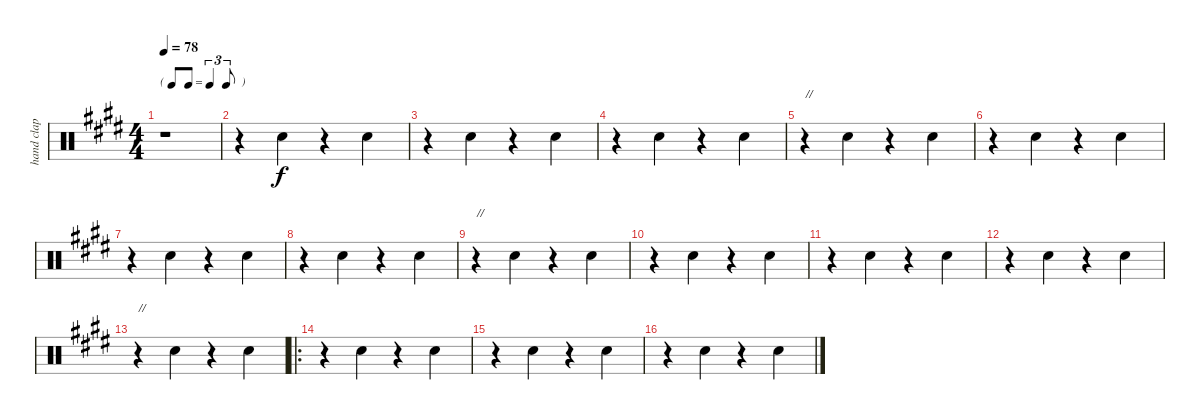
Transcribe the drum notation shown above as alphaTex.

\track ("hand clap" "hand clap") {instrument percussion}
\staff {score}
\articulation defaults
\ts (4 4)
\tf triplet8th
\tempo 78
\clef neutral
\ks e
r.1{dy f} |
r.4 "Hand Clap (hit)".4 r.4 "Hand Clap (hit)".4 |
r.4 "Hand Clap (hit)".4 r.4 "Hand Clap (hit)".4 |
r.4 "Hand Clap (hit)".4 r.4 "Hand Clap (hit)".4 |
r.4{txt "//"} "Hand Clap (hit)".4 r.4 "Hand Clap (hit)".4 |
r.4 "Hand Clap (hit)".4 r.4 "Hand Clap (hit)".4 |
r.4 "Hand Clap (hit)".4 r.4 "Hand Clap (hit)".4 |
r.4 "Hand Clap (hit)".4 r.4 "Hand Clap (hit)".4 |
r.4{txt "//"} "Hand Clap (hit)".4 r.4 "Hand Clap (hit)".4 |
r.4 "Hand Clap (hit)".4 r.4 "Hand Clap (hit)".4 |
r.4 "Hand Clap (hit)".4 r.4 "Hand Clap (hit)".4 |
r.4 "Hand Clap (hit)".4 r.4 "Hand Clap (hit)".4 |
r.4{txt "//"} "Hand Clap (hit)".4 r.4 "Hand Clap (hit)".4 |
\ro
r.4 "Hand Clap (hit)".4 r.4 "Hand Clap (hit)".4 |
r.4 "Hand Clap (hit)".4 r.4 "Hand Clap (hit)".4 |
r.4 "Hand Clap (hit)".4 r.4 "Hand Clap (hit)".4
